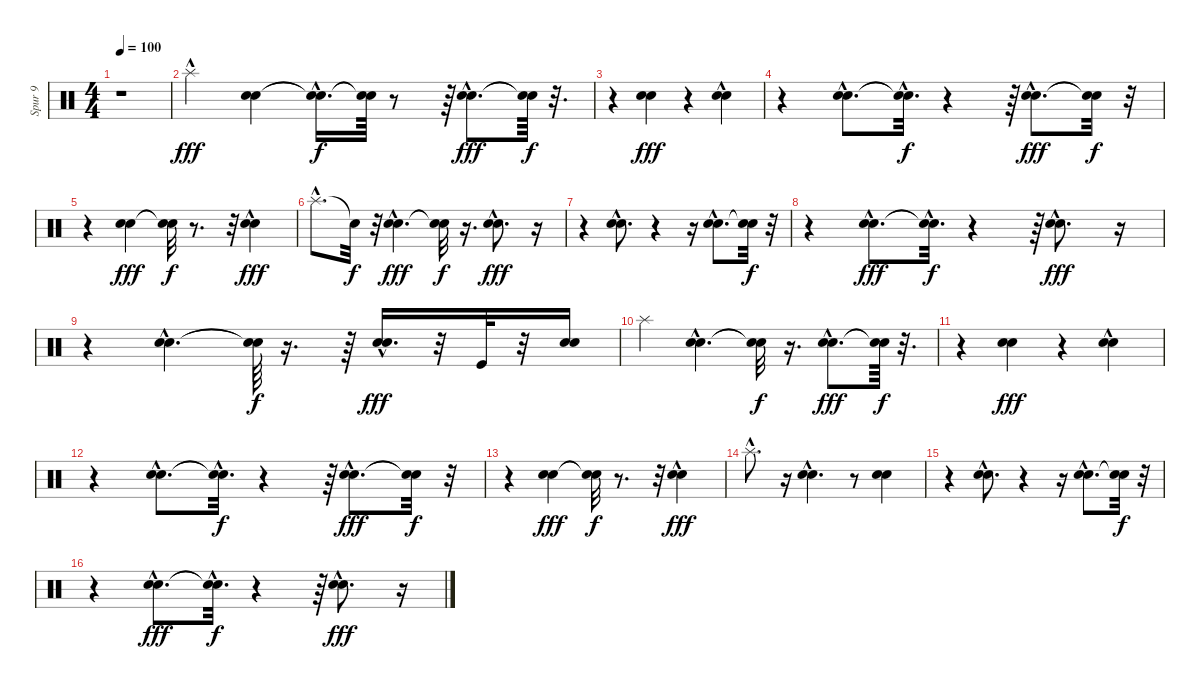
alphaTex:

\track ("Spur 9" "Spur 9") {instrument percussion}
\staff {score}
\articulation defaults
\ts (4 4)
\tempo 100
\clef neutral
\ks c
r.1{dy fff} |
"Splash (hit)"{hac}.4 ("Snare (hit) 2" "Metronome (bell)").4 ("Snare (hit)"{hac t} "Snare (hit)"{hac t}).16{d dy f} ("Snare (hit)"{t} "Snare (hit)"{t}).64 r.8 r.64 ("Snare (hit) 2"{hac} "Metronome (bell)"{hac}).8{d dy fff} ("Snare (hit)"{t} "Snare (hit)"{t}).64{dy f} r.32{d} |
r.4 ("Metronome (bell)" "Snare (hit) 2").4{dy fff} r.4 ("Metronome (bell)"{hac} "Snare (hit) 2").4 |
r.4 ("Metronome (bell)"{hac} "Snare (hit) 2"{hac}).8{d} ("Snare (hit)"{hac t} "Snare (hit)"{hac t}).32{d dy f} r.4 r.64 ("Metronome (bell)"{hac} "Snare (hit) 2"{hac}).8{d dy fff} ("Snare (hit)"{t} "Snare (hit)"{t}).32{dy f} r.32 |
r.4 ("Metronome (bell)" "Snare (hit) 2").4{dy fff} ("Snare (hit)"{t} "Snare (hit)"{t}).32{dy f} r.8{d} r.32 ("Snare (hit) 2" "Metronome (bell)"{hac}).4{dy fff} |
"Splash (hit)"{hac}.8{d} "Snare (hit)"{t}.32{dy f} r.32 ("Snare (hit) 2"{hac} "Metronome (bell)"{hac}).4{d dy fff} ("Snare (hit)"{t} "Snare (hit)"{t}).32{dy f} r.16{d} ("Snare (hit) 2"{hac} "Metronome (bell)"{hac}).8{d dy fff} r.16 |
r.4 ("Metronome (bell)"{hac} "Snare (hit) 2"{hac}).8{d} r.4 r.16 ("Metronome (bell)"{hac} "Snare (hit) 2"{hac}).8{d} ("Snare (hit)"{t} "Snare (hit)"{t}).32{dy f} r.32 |
r.4 ("Metronome (bell)"{hac} "Snare (hit) 2"{hac}).8{d dy fff} ("Snare (hit)"{hac t} "Snare (hit)"{hac t}).32{d dy f} r.4 r.64 ("Metronome (bell)"{hac} "Snare (hit) 2"{hac}).8{d dy fff} r.16 |
r.4 ("Metronome (bell)"{hac} "Snare (hit) 2"{hac}).4{d} ("Snare (hit)"{t} "Snare (hit)"{t}).64{dy f} r.16{d} r.64 ("Snare (hit) 2"{hac} "Metronome (bell)"{hac}).16{d dy fff} r.32 "Kick (hit)".32 r.32 ("Snare (hit) 2" "Metronome (bell)").16 |
"Splash (hit)".4 ("Snare (hit) 2"{hac} "Metronome (bell)"{hac}).4{d} ("Snare (hit)"{t} "Snare (hit)"{t}).32{dy f} r.16{d} ("Snare (hit) 2"{hac} "Metronome (bell)"{hac}).8{d dy fff} ("Snare (hit)"{t} "Snare (hit)"{t}).64{dy f} r.32{d} |
r.4 ("Metronome (bell)" "Snare (hit) 2").4{dy fff} r.4 ("Metronome (bell)"{hac} "Snare (hit) 2").4 |
r.4 ("Metronome (bell)"{hac} "Snare (hit) 2"{hac}).8{d} ("Snare (hit)"{hac t} "Snare (hit)"{hac t}).32{d dy f} r.4 r.64 ("Metronome (bell)"{hac} "Snare (hit) 2"{hac}).8{d dy fff} ("Snare (hit)"{t} "Snare (hit)"{t}).32{dy f} r.32 |
r.4 ("Metronome (bell)" "Snare (hit) 2").4{dy fff} ("Snare (hit)"{t} "Snare (hit)"{t}).32{dy f} r.8{d} r.32 ("Snare (hit) 2" "Metronome (bell)"{hac}).4{dy fff} |
"Splash (hit)"{hac}.8{d} r.16 ("Snare (hit) 2"{hac} "Metronome (bell)"{hac}).4{d} r.8 ("Snare (hit) 2" "Metronome (bell)").4 |
r.4 ("Metronome (bell)"{hac} "Snare (hit) 2"{hac}).8{d} r.4 r.16 ("Metronome (bell)"{hac} "Snare (hit) 2"{hac}).8{d} ("Snare (hit)"{t} "Snare (hit)"{t}).32{dy f} r.32 |
r.4 ("Metronome (bell)"{hac} "Snare (hit) 2"{hac}).8{d dy fff} ("Snare (hit)"{hac t} "Snare (hit)"{hac t}).32{d dy f} r.4 r.64 ("Metronome (bell)"{hac} "Snare (hit) 2"{hac}).8{d dy fff} r.16
